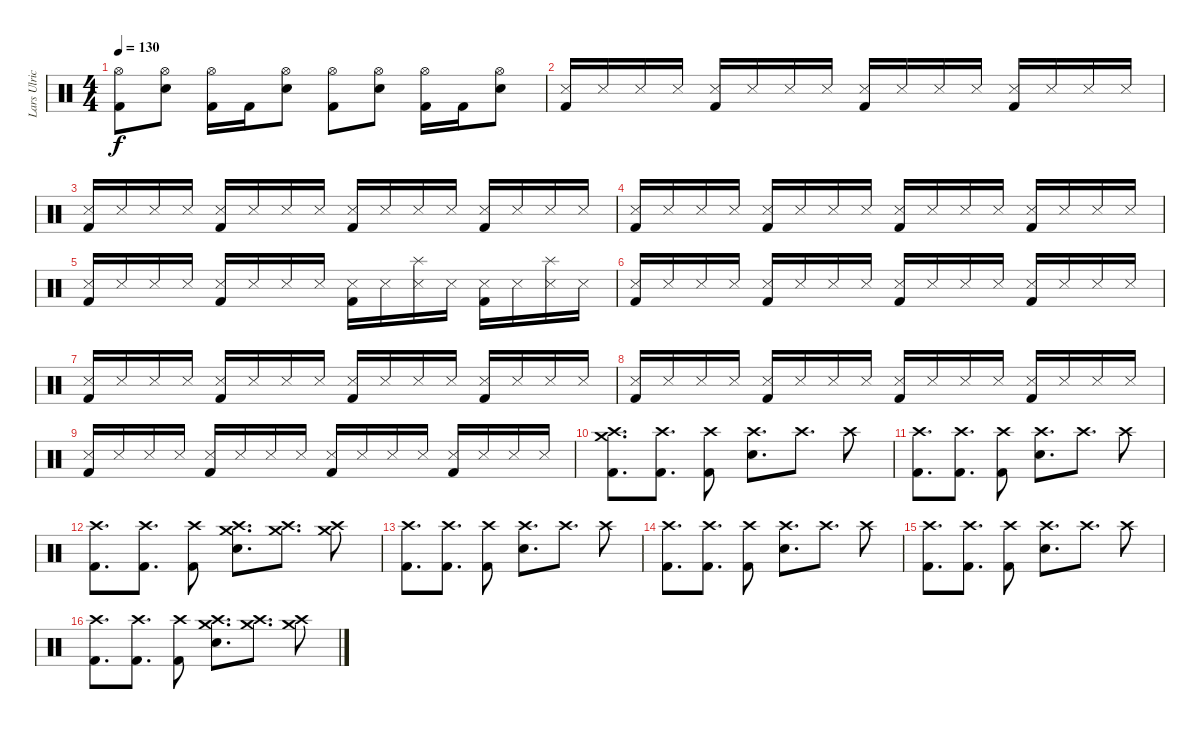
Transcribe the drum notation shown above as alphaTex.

\track ("Lars Ulrich" "Lars Ulric") {instrument percussion}
\staff {score}
\articulation defaults
\ts (4 4)
\tempo 130
\clef neutral
\ks c
("Hi-Hat (open)" "Kick (hit) 2").8{dy f} ("Hi-Hat (open)" "Electric Snare (hit)").8 ("Hi-Hat (open)" "Kick (hit) 2").16 "Kick (hit) 2".16 ("Hi-Hat (open)" "Electric Snare (hit)").8 ("Hi-Hat (open)" "Kick (hit) 2").8 ("Hi-Hat (open)" "Electric Snare (hit)").8 ("Hi-Hat (open)" "Kick (hit) 2").16 "Kick (hit) 2".16 ("Hi-Hat (open)" "Electric Snare (hit)").8 |
("Metronome (hit)" "Kick (hit) 2").16 "Snare (side stick) 3".16 "Snare (side stick) 3".16 "Snare (side stick) 3".16 ("Metronome (hit)" "Kick (hit) 2").16 "Snare (side stick) 3".16 "Snare (side stick) 3".16 "Snare (side stick) 3".16 ("Metronome (hit)" "Kick (hit) 2").16 "Snare (side stick) 3".16 "Snare (side stick) 3".16 "Snare (side stick) 3".16 ("Metronome (hit)" "Kick (hit) 2").16 "Snare (side stick) 3".16 "Snare (side stick) 3".16 "Snare (side stick) 3".16 |
("Metronome (hit)" "Kick (hit) 2").16 "Snare (side stick) 3".16 "Snare (side stick) 3".16 "Snare (side stick) 3".16 ("Metronome (hit)" "Kick (hit) 2").16 "Snare (side stick) 3".16 "Snare (side stick) 3".16 "Snare (side stick) 3".16 ("Metronome (hit)" "Kick (hit) 2").16 "Snare (side stick) 3".16 "Snare (side stick) 3".16 "Snare (side stick) 3".16 ("Metronome (hit)" "Kick (hit) 2").16 "Snare (side stick) 3".16 "Snare (side stick) 3".16 "Snare (side stick) 3".16 |
("Metronome (hit)" "Kick (hit) 2").16 "Snare (side stick) 3".16 "Snare (side stick) 3".16 "Snare (side stick) 3".16 ("Metronome (hit)" "Kick (hit) 2").16 "Snare (side stick) 3".16 "Snare (side stick) 3".16 "Snare (side stick) 3".16 ("Metronome (hit)" "Kick (hit) 2").16 "Snare (side stick) 3".16 "Snare (side stick) 3".16 "Snare (side stick) 3".16 ("Metronome (hit)" "Kick (hit) 2").16 "Snare (side stick) 3".16 "Snare (side stick) 3".16 "Snare (side stick) 3".16 |
("Metronome (hit)" "Kick (hit) 2").16 "Snare (side stick) 3".16 "Snare (side stick) 3".16 "Snare (side stick) 3".16 ("Metronome (hit)" "Kick (hit) 2").16 "Snare (side stick) 3".16 "Snare (side stick) 3".16 "Snare (side stick) 3".16 ("Metronome (hit)" "Kick (hit) 2").16 "Snare (side stick) 3".16 ("Splash (hit)" "Snare (side stick) 3").16 "Snare (side stick) 3".16 ("Metronome (hit)" "Kick (hit) 2").16 "Snare (side stick) 3".16 ("Splash (hit)" "Snare (side stick) 3").16 "Snare (side stick) 3".16 |
("Metronome (hit)" "Kick (hit) 2").16 "Snare (side stick) 3".16 "Snare (side stick) 3".16 "Snare (side stick) 3".16 ("Metronome (hit)" "Kick (hit) 2").16 "Snare (side stick) 3".16 "Snare (side stick) 3".16 "Snare (side stick) 3".16 ("Metronome (hit)" "Kick (hit) 2").16 "Snare (side stick) 3".16 "Snare (side stick) 3".16 "Snare (side stick) 3".16 ("Metronome (hit)" "Kick (hit) 2").16 "Snare (side stick) 3".16 "Snare (side stick) 3".16 "Snare (side stick) 3".16 |
("Metronome (hit)" "Kick (hit) 2").16 "Snare (side stick) 3".16 "Snare (side stick) 3".16 "Snare (side stick) 3".16 ("Metronome (hit)" "Kick (hit) 2").16 "Snare (side stick) 3".16 "Snare (side stick) 3".16 "Snare (side stick) 3".16 ("Metronome (hit)" "Kick (hit) 2").16 "Snare (side stick) 3".16 "Snare (side stick) 3".16 "Snare (side stick) 3".16 ("Metronome (hit)" "Kick (hit) 2").16 "Snare (side stick) 3".16 "Snare (side stick) 3".16 "Snare (side stick) 3".16 |
("Metronome (hit)" "Kick (hit) 2").16 "Snare (side stick) 3".16 "Snare (side stick) 3".16 "Snare (side stick) 3".16 ("Metronome (hit)" "Kick (hit) 2").16 "Snare (side stick) 3".16 "Snare (side stick) 3".16 "Snare (side stick) 3".16 ("Metronome (hit)" "Kick (hit) 2").16 "Snare (side stick) 3".16 "Snare (side stick) 3".16 "Snare (side stick) 3".16 ("Metronome (hit)" "Kick (hit) 2").16 "Snare (side stick) 3".16 "Snare (side stick) 3".16 "Snare (side stick) 3".16 |
("Metronome (hit)" "Kick (hit) 2").16 "Snare (side stick) 3".16 "Snare (side stick) 3".16 "Snare (side stick) 3".16 ("Metronome (hit)" "Kick (hit) 2").16 "Snare (side stick) 3".16 "Snare (side stick) 3".16 "Snare (side stick) 3".16 ("Metronome (hit)" "Kick (hit) 2").16 "Snare (side stick) 3".16 "Snare (side stick) 3".16 "Snare (side stick) 3".16 ("Metronome (hit)" "Kick (hit) 2").16 "Snare (side stick) 3".16 "Snare (side stick) 3".16 "Snare (side stick) 3".16 |
("Crash medium (hit)" "Crash high (hit)" "Kick (hit) 2").8{d} ("Crash high (hit)" "Kick (hit) 2").8{d} ("Crash high (hit)" "Kick (hit) 2").8 ("Crash high (hit)" "Electric Snare (hit)").8{d} "Crash high (hit)".8{d} "Crash high (hit)".8 |
("Crash high (hit)" "Kick (hit) 2").8{d} ("Crash high (hit)" "Kick (hit) 2").8{d} ("Crash high (hit)" "Kick (hit) 2").8 ("Crash high (hit)" "Electric Snare (hit)").8{d} "Crash high (hit)".8{d} "Crash high (hit)".8 |
("Crash high (hit)" "Kick (hit) 2").8{d} ("Crash high (hit)" "Kick (hit) 2").8{d} ("Crash high (hit)" "Kick (hit) 2").8 ("Crash medium (hit)" "Crash high (hit)" "Electric Snare (hit)").8{d} ("Crash medium (hit)" "Crash high (hit)").8{d} ("Crash medium (hit)" "Crash high (hit)").8 |
("Crash high (hit)" "Kick (hit) 2").8{d} ("Crash high (hit)" "Kick (hit) 2").8{d} ("Crash high (hit)" "Kick (hit) 2").8 ("Crash high (hit)" "Electric Snare (hit)").8{d} "Crash high (hit)".8{d} "Crash high (hit)".8 |
("Crash high (hit)" "Kick (hit) 2").8{d} ("Crash high (hit)" "Kick (hit) 2").8{d} ("Crash high (hit)" "Kick (hit) 2").8 ("Crash high (hit)" "Electric Snare (hit)").8{d} "Crash high (hit)".8{d} "Crash high (hit)".8 |
("Crash high (hit)" "Kick (hit) 2").8{d} ("Crash high (hit)" "Kick (hit) 2").8{d} ("Crash high (hit)" "Kick (hit) 2").8 ("Crash high (hit)" "Electric Snare (hit)").8{d} "Crash high (hit)".8{d} "Crash high (hit)".8 |
("Crash high (hit)" "Kick (hit) 2").8{d} ("Crash high (hit)" "Kick (hit) 2").8{d} ("Crash high (hit)" "Kick (hit) 2").8 ("Crash medium (hit)" "Crash high (hit)" "Electric Snare (hit)").8{d} ("Crash medium (hit)" "Crash high (hit)").8{d} ("Crash medium (hit)" "Crash high (hit)").8
